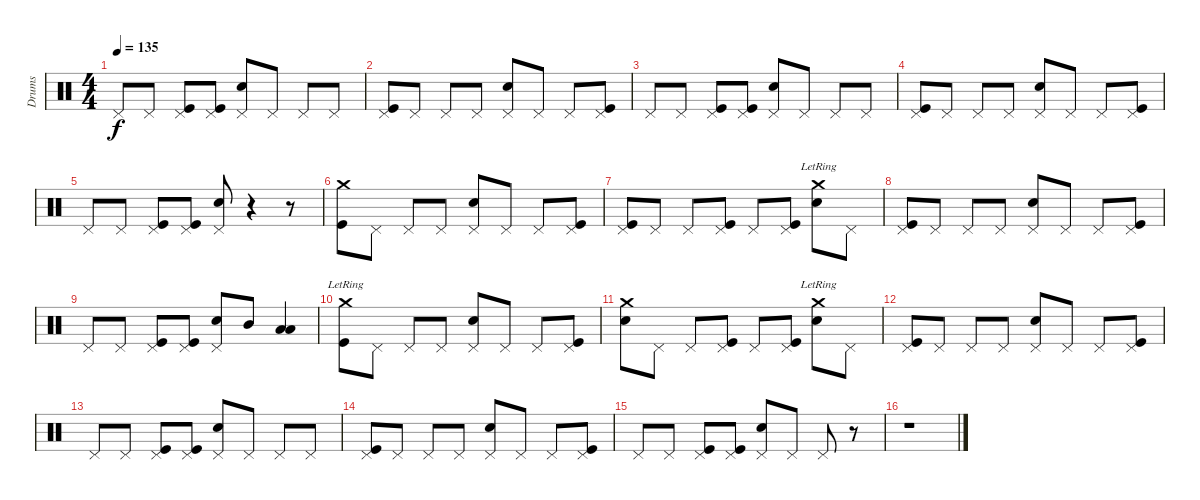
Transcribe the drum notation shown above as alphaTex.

\track ("Drums" "Drums") {instrument percussion}
\staff {score}
\articulation defaults
\ts (4 4)
\tempo 135
\clef neutral
\ks c "Pedal Hi-Hat (hit)".8{dy f} "Pedal Hi-Hat (hit)".8
("Pedal Hi-Hat (hit)" "Kick (hit)").8 ("Pedal Hi-Hat (hit)" "Kick (hit)").8 ("Pedal Hi-Hat (hit)" "Snare (hit) 2").8 "Pedal Hi-Hat (hit)".8 "Pedal Hi-Hat (hit)".8 "Pedal Hi-Hat (hit)".8 |
("Pedal Hi-Hat (hit)" "Kick (hit)").8 "Pedal Hi-Hat (hit)".8 "Pedal Hi-Hat (hit)".8 "Pedal Hi-Hat (hit)".8 ("Pedal Hi-Hat (hit)" "Snare (hit) 2").8 "Pedal Hi-Hat (hit)".8 "Pedal Hi-Hat (hit)".8 ("Pedal Hi-Hat (hit)" "Kick (hit)").8 |
"Pedal Hi-Hat (hit)".8 "Pedal Hi-Hat (hit)".8 ("Pedal Hi-Hat (hit)" "Kick (hit)").8 ("Pedal Hi-Hat (hit)" "Kick (hit)").8 ("Pedal Hi-Hat (hit)" "Snare (hit) 2").8 "Pedal Hi-Hat (hit)".8 "Pedal Hi-Hat (hit)".8 "Pedal Hi-Hat (hit)".8 |
("Pedal Hi-Hat (hit)" "Kick (hit)").8 "Pedal Hi-Hat (hit)".8 "Pedal Hi-Hat (hit)".8 "Pedal Hi-Hat (hit)".8 ("Pedal Hi-Hat (hit)" "Snare (hit) 2").8 "Pedal Hi-Hat (hit)".8 "Pedal Hi-Hat (hit)".8 ("Pedal Hi-Hat (hit)" "Kick (hit)").8 |
"Pedal Hi-Hat (hit)".8 "Pedal Hi-Hat (hit)".8 ("Pedal Hi-Hat (hit)" "Kick (hit)").8 ("Pedal Hi-Hat (hit)" "Kick (hit)").8 ("Pedal Hi-Hat (hit)" "Snare (hit) 2").8 r.4 r.8 |
("Crash medium (hit)" "Kick (hit)").8 "Pedal Hi-Hat (hit)".8 "Pedal Hi-Hat (hit)".8 "Pedal Hi-Hat (hit)".8 ("Pedal Hi-Hat (hit)" "Snare (hit) 2").8 "Pedal Hi-Hat (hit)".8 "Pedal Hi-Hat (hit)".8 ("Pedal Hi-Hat (hit)" "Kick (hit)").8 |
("Pedal Hi-Hat (hit)" "Kick (hit)").8 "Pedal Hi-Hat (hit)".8 "Pedal Hi-Hat (hit)".8 ("Pedal Hi-Hat (hit)" "Kick (hit)").8 "Pedal Hi-Hat (hit)".8 ("Pedal Hi-Hat (hit)" "Kick (hit)").8 ("Crash medium (hit)"{lr} "Snare (hit) 2").8 "Pedal Hi-Hat (hit)".8 |
("Pedal Hi-Hat (hit)" "Kick (hit)").8 "Pedal Hi-Hat (hit)".8 "Pedal Hi-Hat (hit)".8 "Pedal Hi-Hat (hit)".8 ("Pedal Hi-Hat (hit)" "Snare (hit) 2").8 "Pedal Hi-Hat (hit)".8 "Pedal Hi-Hat (hit)".8 ("Pedal Hi-Hat (hit)" "Kick (hit)").8 |
"Pedal Hi-Hat (hit)".8 "Pedal Hi-Hat (hit)".8 ("Pedal Hi-Hat (hit)" "Kick (hit)").8 ("Pedal Hi-Hat (hit)" "Kick (hit)").8 ("Pedal Hi-Hat (hit)" "Snare (hit) 2").8 "Mid Tom (hit)".8 ("Low Tom (hit)" "Low Tom (hit)").4{bd 60} |
("Crash medium (hit)"{lr} "Kick (hit)").8 "Pedal Hi-Hat (hit)".8 "Pedal Hi-Hat (hit)".8 "Pedal Hi-Hat (hit)".8 ("Pedal Hi-Hat (hit)" "Snare (hit) 2").8 "Pedal Hi-Hat (hit)".8 "Pedal Hi-Hat (hit)".8 ("Pedal Hi-Hat (hit)" "Kick (hit)").8 |
("Crash medium (hit)" "Snare (hit) 2").8 "Pedal Hi-Hat (hit)".8 "Pedal Hi-Hat (hit)".8 ("Pedal Hi-Hat (hit)" "Kick (hit)").8 "Pedal Hi-Hat (hit)".8 ("Pedal Hi-Hat (hit)" "Kick (hit)").8 ("Crash medium (hit)"{lr} "Snare (hit) 2").8 "Pedal Hi-Hat (hit)".8 |
("Pedal Hi-Hat (hit)" "Kick (hit)").8 "Pedal Hi-Hat (hit)".8 "Pedal Hi-Hat (hit)".8 "Pedal Hi-Hat (hit)".8 ("Pedal Hi-Hat (hit)" "Snare (hit) 2").8 "Pedal Hi-Hat (hit)".8 "Pedal Hi-Hat (hit)".8 ("Pedal Hi-Hat (hit)" "Kick (hit)").8 |
"Pedal Hi-Hat (hit)".8 "Pedal Hi-Hat (hit)".8 ("Pedal Hi-Hat (hit)" "Kick (hit)").8 ("Pedal Hi-Hat (hit)" "Kick (hit)").8 ("Pedal Hi-Hat (hit)" "Snare (hit) 2").8 "Pedal Hi-Hat (hit)".8 "Pedal Hi-Hat (hit)".8 "Pedal Hi-Hat (hit)".8 |
("Pedal Hi-Hat (hit)" "Kick (hit)").8 "Pedal Hi-Hat (hit)".8 "Pedal Hi-Hat (hit)".8 "Pedal Hi-Hat (hit)".8 ("Pedal Hi-Hat (hit)" "Snare (hit) 2").8 "Pedal Hi-Hat (hit)".8 "Pedal Hi-Hat (hit)".8 ("Pedal Hi-Hat (hit)" "Kick (hit)").8 |
"Pedal Hi-Hat (hit)".8 "Pedal Hi-Hat (hit)".8 ("Pedal Hi-Hat (hit)" "Kick (hit)").8 ("Pedal Hi-Hat (hit)" "Kick (hit)").8 ("Pedal Hi-Hat (hit)" "Snare (hit) 2").8 "Pedal Hi-Hat (hit)".8 "Pedal Hi-Hat (hit)".8 r.8 |
r.1
